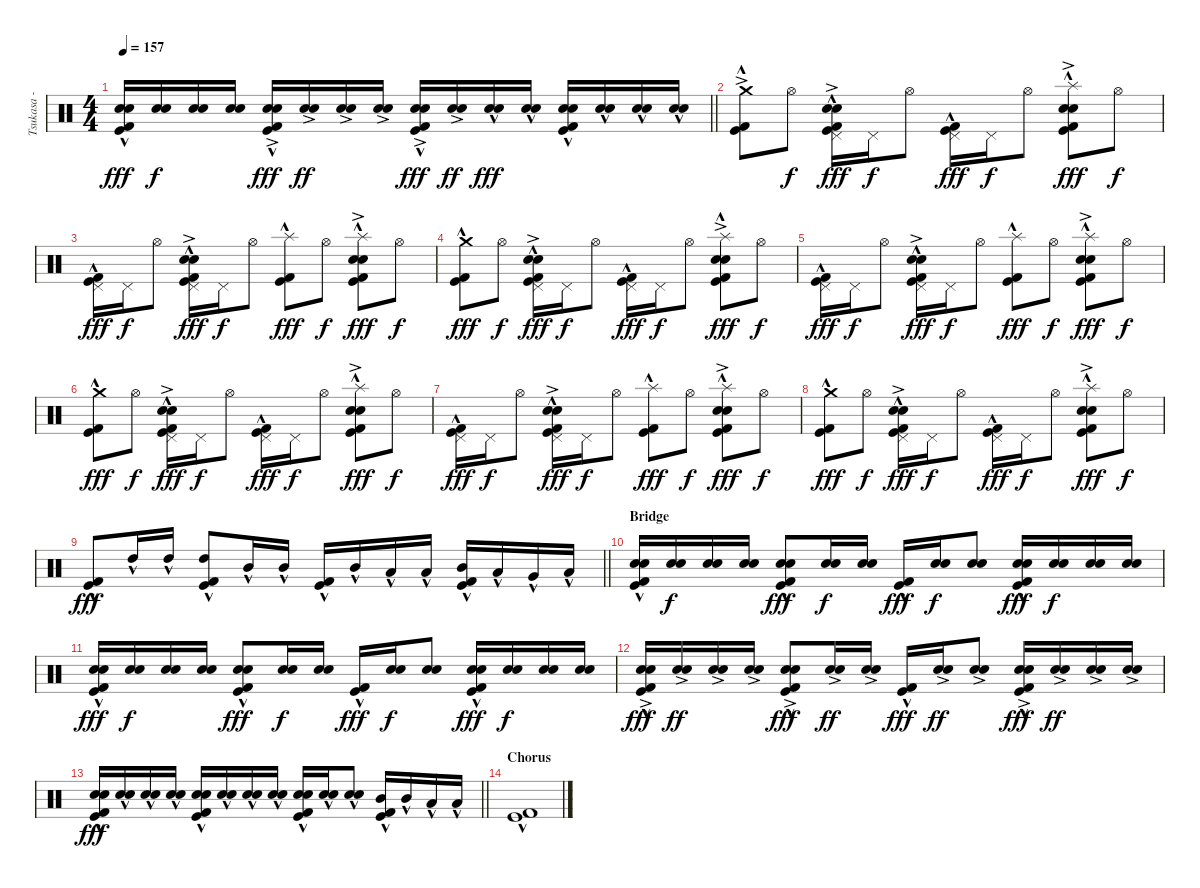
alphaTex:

\track ("Tsukasa - Drums" "Tsukasa - ") {instrument percussion}
\staff {score}
\articulation defaults
\ts (4 4)
\tempo 157
\clef neutral
\barLineRight lightlight
\ks c
("Electric Snare (hit)" "Snare (hit) 2" "Kick (hit) 2"{hac} "Kick (hit)"{hac}).16{dy fff} ("Electric Snare (hit)" "Snare (hit) 2").16{dy f} ("Electric Snare (hit)" "Snare (hit) 2").16 ("Electric Snare (hit)" "Snare (hit) 2").16 ("Electric Snare (hit)"{ac} "Snare (hit) 2"{ac} "Kick (hit) 2"{hac} "Kick (hit)"{hac}).16{dy fff} ("Electric Snare (hit)"{ac} "Snare (hit) 2"{ac}).16{dy ff} ("Electric Snare (hit)"{ac} "Snare (hit) 2"{ac}).16 ("Electric Snare (hit)"{ac} "Snare (hit) 2"{ac}).16 ("Electric Snare (hit)"{ac} "Snare (hit) 2"{ac} "Kick (hit) 2"{hac} "Kick (hit)"{hac}).16{dy fff} ("Electric Snare (hit)"{ac} "Snare (hit) 2"{ac}).16{dy ff} ("Electric Snare (hit)"{hac} "Snare (hit) 2"{hac}).16{dy fff} ("Electric Snare (hit)"{hac} "Snare (hit) 2"{hac}).16 ("Electric Snare (hit)"{hac} "Snare (hit) 2"{hac} "Kick (hit) 2"{hac} "Kick (hit)"{hac}).16 ("Electric Snare (hit)"{hac} "Snare (hit) 2"{hac}).16 ("Electric Snare (hit)"{hac} "Snare (hit) 2"{hac}).16 ("Electric Snare (hit)"{hac} "Snare (hit) 2"{hac}).16 |
\section ("" "")
("Crash medium (hit)"{ac} "Kick (hit) 2"{hac} "Kick (hit)"{hac}).8 "Hi-Hat (open)".8{dy f} ("Pedal Hi-Hat (hit)" "Electric Snare (hit)"{hac} "Snare (hit) 2"{ac} "Kick (hit) 2"{hac} "Kick (hit)"{hac}).16{dy fff} "Pedal Hi-Hat (hit)".16{dy f} "Hi-Hat (open)".8 ("Pedal Hi-Hat (hit)" "Kick (hit) 2"{hac} "Kick (hit)"{hac}).16{dy fff} "Pedal Hi-Hat (hit)".16{dy f} "Hi-Hat (open)".8 ("Splash (hit)"{hac} "Electric Snare (hit)"{hac} "Snare (hit) 2"{ac} "Kick (hit) 2"{hac} "Kick (hit)"{hac}).8{dy fff} "Hi-Hat (open)".8{dy f} |
("Pedal Hi-Hat (hit)" "Kick (hit) 2"{hac} "Kick (hit)"{hac}).16{dy fff} "Pedal Hi-Hat (hit)".16{dy f} "Hi-Hat (open)".8 ("Pedal Hi-Hat (hit)" "Electric Snare (hit)"{hac} "Snare (hit) 2"{ac} "Kick (hit) 2"{hac} "Kick (hit)"{hac}).16{dy fff} "Pedal Hi-Hat (hit)".16{dy f} "Hi-Hat (open)".8 ("Splash (hit)"{hac} "Kick (hit) 2"{hac} "Kick (hit)"{hac}).8{dy fff} "Hi-Hat (open)".8{dy f} ("Splash (hit)"{hac} "Electric Snare (hit)"{hac} "Snare (hit) 2"{ac} "Kick (hit) 2"{hac} "Kick (hit)"{hac}).8{dy fff} "Hi-Hat (open)".8{dy f} |
("Crash medium (hit)"{hac} "Kick (hit) 2"{hac} "Kick (hit)"{hac}).8{dy fff} "Hi-Hat (open)".8{dy f} ("Pedal Hi-Hat (hit)" "Electric Snare (hit)"{hac} "Snare (hit) 2"{ac} "Kick (hit) 2"{hac} "Kick (hit)"{hac}).16{dy fff} "Pedal Hi-Hat (hit)".16{dy f} "Hi-Hat (open)".8 ("Pedal Hi-Hat (hit)" "Kick (hit) 2"{hac} "Kick (hit)"{hac}).16{dy fff} "Pedal Hi-Hat (hit)".16{dy f} "Hi-Hat (open)".8 ("Splash (hit)"{ac} "Electric Snare (hit)"{hac} "Snare (hit) 2"{ac} "Kick (hit) 2"{hac} "Kick (hit)"{hac}).8{dy fff} "Hi-Hat (open)".8{dy f} |
("Pedal Hi-Hat (hit)" "Kick (hit) 2"{hac} "Kick (hit)"{hac}).16{dy fff} "Pedal Hi-Hat (hit)".16{dy f} "Hi-Hat (open)".8 ("Pedal Hi-Hat (hit)" "Electric Snare (hit)"{hac} "Snare (hit) 2"{ac} "Kick (hit) 2"{hac} "Kick (hit)"{hac}).16{dy fff} "Pedal Hi-Hat (hit)".16{dy f} "Hi-Hat (open)".8 ("Splash (hit)"{hac} "Kick (hit) 2"{hac} "Kick (hit)"{hac}).8{dy fff} "Hi-Hat (open)".8{dy f} ("Splash (hit)"{hac} "Electric Snare (hit)"{hac} "Snare (hit) 2"{ac} "Kick (hit) 2"{hac} "Kick (hit)"{hac}).8{dy fff} "Hi-Hat (open)".8{dy f} |
("Crash medium (hit)"{hac} "Kick (hit) 2"{hac} "Kick (hit)"{hac}).8{dy fff} "Hi-Hat (open)".8{dy f} ("Pedal Hi-Hat (hit)" "Electric Snare (hit)"{hac} "Snare (hit) 2"{ac} "Kick (hit) 2"{hac} "Kick (hit)"{hac}).16{dy fff} "Pedal Hi-Hat (hit)".16{dy f} "Hi-Hat (open)".8 ("Pedal Hi-Hat (hit)" "Kick (hit) 2"{hac} "Kick (hit)"{hac}).16{dy fff} "Pedal Hi-Hat (hit)".16{dy f} "Hi-Hat (open)".8 ("Splash (hit)"{hac} "Electric Snare (hit)"{hac} "Snare (hit) 2"{ac} "Kick (hit) 2"{hac} "Kick (hit)"{hac}).8{dy fff} "Hi-Hat (open)".8{dy f} |
("Pedal Hi-Hat (hit)" "Kick (hit) 2"{hac} "Kick (hit)"{hac}).16{dy fff} "Pedal Hi-Hat (hit)".16{dy f} "Hi-Hat (open)".8 ("Pedal Hi-Hat (hit)" "Electric Snare (hit)"{hac} "Snare (hit) 2"{ac} "Kick (hit) 2"{hac} "Kick (hit)"{hac}).16{dy fff} "Pedal Hi-Hat (hit)".16{dy f} "Hi-Hat (open)".8 ("Splash (hit)"{hac} "Kick (hit) 2"{hac} "Kick (hit)"{hac}).8{dy fff} "Hi-Hat (open)".8{dy f} ("Splash (hit)"{hac} "Electric Snare (hit)"{hac} "Snare (hit) 2"{ac} "Kick (hit) 2"{hac} "Kick (hit)"{hac}).8{dy fff} "Hi-Hat (open)".8{dy f} |
("Crash medium (hit)"{hac} "Kick (hit) 2"{hac} "Kick (hit)"{hac}).8{dy fff} "Hi-Hat (open)".8{dy f} ("Pedal Hi-Hat (hit)" "Electric Snare (hit)"{hac} "Snare (hit) 2"{ac} "Kick (hit) 2"{hac} "Kick (hit)"{hac}).16{dy fff} "Pedal Hi-Hat (hit)".16{dy f} "Hi-Hat (open)".8 ("Pedal Hi-Hat (hit)" "Kick (hit) 2"{hac} "Kick (hit)"{hac}).16{dy fff} "Pedal Hi-Hat (hit)".16{dy f} "Hi-Hat (open)".8 ("Splash (hit)"{hac} "Electric Snare (hit)"{hac} "Snare (hit) 2"{ac} "Kick (hit) 2"{hac} "Kick (hit)"{hac}).8{dy fff} "Hi-Hat (open)".8{dy f} |
\barLineRight lightlight
("Kick (hit) 2"{hac} "Kick (hit)"{hac}).8{dy fff} "High Tom (hit)"{hac}.16 "High Tom (hit)"{hac}.16 ("High Tom (hit)"{hac} "Kick (hit) 2"{hac} "Kick (hit)"{hac}).8 "Mid Tom (hit)"{hac}.16 "Mid Tom (hit)"{hac}.16 ("Kick (hit) 2"{hac} "Kick (hit)"{hac}).16 "Mid Tom (hit)"{hac}.16 "Low Tom (hit)"{hac}.16 "Low Tom (hit)"{hac}.16 ("Mid Tom (hit)"{hac} "Kick (hit) 2"{hac} "Kick (hit)"{hac}).16 "Low Tom (hit)"{hac}.16 "Very Low Tom (hit)"{hac}.16 "Low Floor Tom (hit)"{hac}.16 |
\section ("" "Bridge")
("Electric Snare (hit)" "Snare (hit) 2" "Kick (hit) 2"{hac} "Kick (hit)"{hac}).16 ("Electric Snare (hit)" "Snare (hit) 2").16{dy f} ("Electric Snare (hit)" "Snare (hit) 2").16 ("Electric Snare (hit)" "Snare (hit) 2").16 ("Electric Snare (hit)" "Snare (hit) 2" "Kick (hit) 2"{hac} "Kick (hit)"{hac}).8{dy fff} ("Electric Snare (hit)" "Snare (hit) 2").16{dy f} ("Electric Snare (hit)" "Snare (hit) 2").16 ("Kick (hit) 2"{hac} "Kick (hit)"{hac}).16{dy fff} ("Electric Snare (hit)" "Snare (hit) 2").16{dy f} ("Electric Snare (hit)" "Snare (hit) 2").8 ("Electric Snare (hit)" "Snare (hit) 2" "Kick (hit) 2"{hac} "Kick (hit)"{hac}).16{dy fff} ("Electric Snare (hit)" "Snare (hit) 2").16{dy f} ("Electric Snare (hit)" "Snare (hit) 2").16 ("Electric Snare (hit)" "Snare (hit) 2").16 |
("Electric Snare (hit)" "Snare (hit) 2" "Kick (hit) 2"{hac} "Kick (hit)"{hac}).16{dy fff} ("Electric Snare (hit)" "Snare (hit) 2").16{dy f} ("Electric Snare (hit)" "Snare (hit) 2").16 ("Electric Snare (hit)" "Snare (hit) 2").16 ("Electric Snare (hit)" "Snare (hit) 2" "Kick (hit) 2"{hac} "Kick (hit)"{hac}).8{dy fff} ("Electric Snare (hit)" "Snare (hit) 2").16{dy f} ("Electric Snare (hit)" "Snare (hit) 2").16 ("Kick (hit) 2"{hac} "Kick (hit)"{hac}).16{dy fff} ("Electric Snare (hit)" "Snare (hit) 2").16{dy f} ("Electric Snare (hit)" "Snare (hit) 2").8 ("Electric Snare (hit)" "Snare (hit) 2" "Kick (hit) 2"{hac} "Kick (hit)"{hac}).16{dy fff} ("Electric Snare (hit)" "Snare (hit) 2").16{dy f} ("Electric Snare (hit)" "Snare (hit) 2").16 ("Electric Snare (hit)" "Snare (hit) 2").16 |
("Electric Snare (hit)"{ac} "Snare (hit) 2"{ac} "Kick (hit) 2"{hac} "Kick (hit)"{hac}).16{dy fff} ("Electric Snare (hit)"{ac} "Snare (hit) 2"{ac}).16{dy ff} ("Electric Snare (hit)"{ac} "Snare (hit) 2"{ac}).16 ("Electric Snare (hit)"{ac} "Snare (hit) 2"{ac}).16 ("Electric Snare (hit)"{ac} "Snare (hit) 2"{ac} "Kick (hit) 2"{hac} "Kick (hit)"{hac}).8{dy fff} ("Electric Snare (hit)"{ac} "Snare (hit) 2"{ac}).16{dy ff} ("Electric Snare (hit)"{ac} "Snare (hit) 2"{ac}).16 ("Kick (hit) 2"{hac} "Kick (hit)"{hac}).16{dy fff} ("Electric Snare (hit)"{ac} "Snare (hit) 2"{ac}).16{dy ff} ("Electric Snare (hit)"{ac} "Snare (hit) 2"{ac}).8 ("Electric Snare (hit)"{ac} "Snare (hit) 2"{ac} "Kick (hit) 2"{hac} "Kick (hit)"{hac}).16{dy fff} ("Electric Snare (hit)"{ac} "Snare (hit) 2"{ac}).16{dy ff} ("Electric Snare (hit)"{ac} "Snare (hit) 2"{ac}).16 ("Electric Snare (hit)"{ac} "Snare (hit) 2"{ac}).16 |
\barLineRight lightlight
("Electric Snare (hit)"{hac} "Snare (hit) 2"{hac} "Kick (hit) 2"{hac} "Kick (hit)"{hac}).16{dy fff} ("Electric Snare (hit)"{hac} "Snare (hit) 2"{hac}).16 ("Electric Snare (hit)"{hac} "Snare (hit) 2"{hac}).16 ("Electric Snare (hit)"{hac} "Snare (hit) 2"{hac}).16 ("Electric Snare (hit)"{hac} "Snare (hit) 2"{hac} "Kick (hit) 2"{hac} "Kick (hit)"{hac}).16 ("Electric Snare (hit)"{hac} "Snare (hit) 2"{hac}).16 ("Electric Snare (hit)"{hac} "Snare (hit) 2"{hac}).16 ("Electric Snare (hit)"{hac} "Snare (hit) 2"{hac}).16 ("Electric Snare (hit)"{hac} "Snare (hit) 2"{hac} "Kick (hit) 2"{hac} "Kick (hit)"{hac}).16 ("Electric Snare (hit)"{hac} "Snare (hit) 2"{hac}).16 ("Electric Snare (hit)"{hac} "Snare (hit) 2"{hac}).8 ("Mid Tom (hit)"{hac} "Kick (hit) 2"{hac} "Kick (hit)"{hac}).16 "Mid Tom (hit)"{hac}.16 "Low Tom (hit)"{hac}.16 "Low Tom (hit)"{hac}.16 |
\section ("" "Chorus")
("Kick (hit)"{hac} "Kick (hit) 2"{hac}).1
